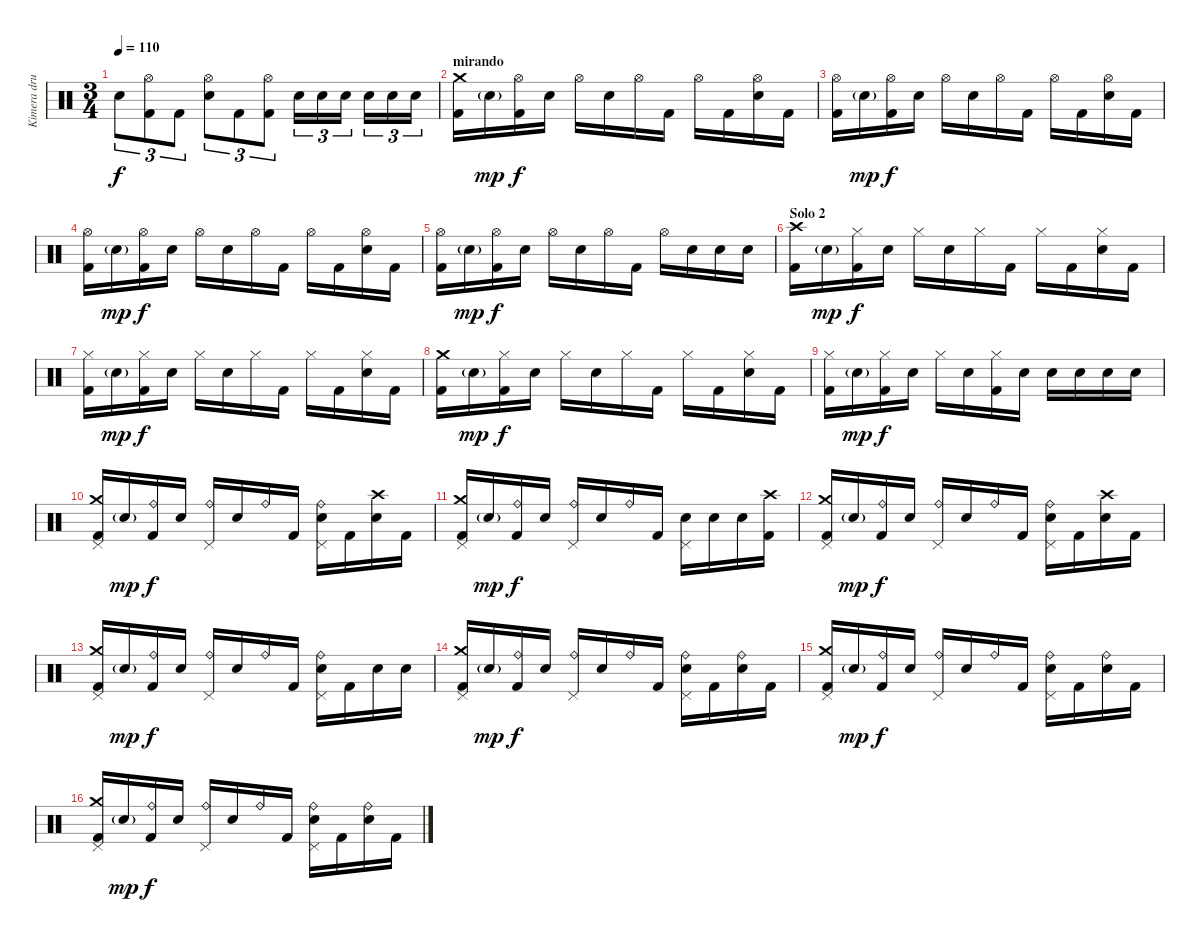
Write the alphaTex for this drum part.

\track ("Kimera drummer" "Kimera dru") {instrument percussion}
\staff {score}
\articulation defaults
\ts (3 4)
\tempo 110
\clef neutral
\ks c "Electric Snare (hit)".8{tu (3 2) dy f}
("Hi-Hat (open)" "Kick (hit) 2").8{tu (3 2)} "Kick (hit) 2".8{tu (3 2)} ("Hi-Hat (open)" "Electric Snare (hit)").8{tu (3 2)} "Kick (hit) 2".8{tu (3 2)} ("Hi-Hat (open)" "Kick (hit) 2").8{tu (3 2)} "Electric Snare (hit)".16{tu (3 2)} "Electric Snare (hit)".16{tu (3 2)} "Electric Snare (hit)".16{tu (3 2)} "Electric Snare (hit)".16{tu (3 2)} "Electric Snare (hit)".16{tu (3 2)} "Electric Snare (hit)".16{tu (3 2)} |
\section ("" "mirando")
("Crash medium (hit)" "Kick (hit) 2").16 "Electric Snare (hit)"{g}.16{dy mp} ("Hi-Hat (open)" "Kick (hit) 2").16{dy f} "Electric Snare (hit)".16 "Hi-Hat (open)".16 "Electric Snare (hit)".16 "Hi-Hat (open)".16 "Kick (hit) 2".16 "Hi-Hat (open)".16 "Kick (hit) 2".16 ("Hi-Hat (open)" "Electric Snare (hit)").16 "Kick (hit) 2".16 |
("Hi-Hat (open)" "Kick (hit) 2").16 "Electric Snare (hit)"{g}.16{dy mp} ("Hi-Hat (open)" "Kick (hit) 2").16{dy f} "Electric Snare (hit)".16 "Hi-Hat (open)".16 "Electric Snare (hit)".16 "Hi-Hat (open)".16 "Kick (hit) 2".16 "Hi-Hat (open)".16 "Kick (hit) 2".16 ("Hi-Hat (open)" "Electric Snare (hit)").16 "Kick (hit) 2".16 |
("Hi-Hat (open)" "Kick (hit) 2").16 "Electric Snare (hit)"{g}.16{dy mp} ("Hi-Hat (open)" "Kick (hit) 2").16{dy f} "Electric Snare (hit)".16 "Hi-Hat (open)".16 "Electric Snare (hit)".16 "Hi-Hat (open)".16 "Kick (hit) 2".16 "Hi-Hat (open)".16 "Kick (hit) 2".16 ("Hi-Hat (open)" "Electric Snare (hit)").16 "Kick (hit) 2".16 |
("Hi-Hat (open)" "Kick (hit) 2").16 "Electric Snare (hit)"{g}.16{dy mp} ("Hi-Hat (open)" "Kick (hit) 2").16{dy f} "Electric Snare (hit)".16 "Hi-Hat (open)".16 "Electric Snare (hit)".16 "Hi-Hat (open)".16 "Kick (hit) 2".16 "Hi-Hat (open)".16 "Electric Snare (hit)".16 "Electric Snare (hit)".16 "Electric Snare (hit)".16 |
\section ("" "Solo 2")
("Crash high (hit)" "Kick (hit) 2").16 "Electric Snare (hit)"{g}.16{dy mp} ("Hi-Hat (closed)" "Kick (hit) 2").16{dy f} "Electric Snare (hit)".16 "Hi-Hat (closed)".16 "Electric Snare (hit)".16 "Hi-Hat (closed)".16 "Kick (hit) 2".16 "Hi-Hat (closed)".16 "Kick (hit) 2".16 ("Hi-Hat (closed)" "Electric Snare (hit)").16 "Kick (hit) 2".16 |
("Hi-Hat (closed)" "Kick (hit) 2").16 "Electric Snare (hit)"{g}.16{dy mp} ("Hi-Hat (closed)" "Kick (hit) 2").16{dy f} "Electric Snare (hit)".16 "Hi-Hat (closed)".16 "Electric Snare (hit)".16 "Hi-Hat (closed)".16 "Kick (hit) 2".16 "Hi-Hat (closed)".16 "Kick (hit) 2".16 ("Hi-Hat (closed)" "Electric Snare (hit)").16 "Kick (hit) 2".16 |
("Crash medium (hit)" "Kick (hit) 2").16 "Electric Snare (hit)"{g}.16{dy mp} ("Hi-Hat (closed)" "Kick (hit) 2").16{dy f} "Electric Snare (hit)".16 "Hi-Hat (closed)".16 "Electric Snare (hit)".16 "Hi-Hat (closed)".16 "Kick (hit) 2".16 "Hi-Hat (closed)".16 "Kick (hit) 2".16 ("Hi-Hat (closed)" "Electric Snare (hit)").16 "Kick (hit) 2".16 |
("Hi-Hat (closed)" "Kick (hit) 2").16 "Electric Snare (hit)"{g}.16{dy mp} ("Hi-Hat (closed)" "Kick (hit) 2").16{dy f} "Electric Snare (hit)".16 "Hi-Hat (closed)".16 "Electric Snare (hit)".16 ("Hi-Hat (closed)" "Kick (hit) 2").16 "Electric Snare (hit)".16 "Electric Snare (hit)".16 "Electric Snare (hit)".16 "Electric Snare (hit)".16 "Electric Snare (hit)".16 |
("Crash medium (hit)" "Pedal Hi-Hat (hit)" "Kick (hit) 2").16 "Electric Snare (hit)"{g}.16{dy mp} ("Ride (bell)" "Kick (hit) 2").16{dy f} "Electric Snare (hit)".16 ("Ride (bell)" "Pedal Hi-Hat (hit)").16 "Electric Snare (hit)".16 "Ride (bell)".16 "Kick (hit) 2".16 ("Ride (bell)" "Electric Snare (hit)" "Pedal Hi-Hat (hit)").16 "Kick (hit) 2".16 ("Crash high (hit)" "Electric Snare (hit)").16 "Kick (hit) 2".16 |
("Crash medium (hit)" "Pedal Hi-Hat (hit)" "Kick (hit) 2").16 "Electric Snare (hit)"{g}.16{dy mp} ("Ride (bell)" "Kick (hit) 2").16{dy f} "Electric Snare (hit)".16 ("Ride (bell)" "Pedal Hi-Hat (hit)").16 "Electric Snare (hit)".16 "Ride (bell)".16 "Kick (hit) 2".16 ("Electric Snare (hit)" "Pedal Hi-Hat (hit)").16 "Electric Snare (hit)".16 "Electric Snare (hit)".16 ("Crash high (hit)" "Kick (hit) 2").16 |
("Crash medium (hit)" "Pedal Hi-Hat (hit)" "Kick (hit) 2").16 "Electric Snare (hit)"{g}.16{dy mp} ("Ride (bell)" "Kick (hit) 2").16{dy f} "Electric Snare (hit)".16 ("Ride (bell)" "Pedal Hi-Hat (hit)").16 "Electric Snare (hit)".16 "Ride (bell)".16 "Kick (hit) 2".16 ("Ride (bell)" "Electric Snare (hit)" "Pedal Hi-Hat (hit)").16 "Kick (hit) 2".16 ("Crash high (hit)" "Electric Snare (hit)").16 "Kick (hit) 2".16 |
("Crash medium (hit)" "Pedal Hi-Hat (hit)" "Kick (hit) 2").16 "Electric Snare (hit)"{g}.16{dy mp} ("Ride (bell)" "Kick (hit) 2").16{dy f} "Electric Snare (hit)".16 ("Ride (bell)" "Pedal Hi-Hat (hit)").16 "Electric Snare (hit)".16 "Ride (bell)".16 "Kick (hit) 2".16 ("Ride (bell)" "Electric Snare (hit)" "Pedal Hi-Hat (hit)").16 "Kick (hit) 2".16 "Electric Snare (hit)".16 "Electric Snare (hit)".16 |
("Crash medium (hit)" "Pedal Hi-Hat (hit)" "Kick (hit) 2").16 "Electric Snare (hit)"{g}.16{dy mp} ("Ride (bell)" "Kick (hit) 2").16{dy f} "Electric Snare (hit)".16 ("Ride (bell)" "Pedal Hi-Hat (hit)").16 "Electric Snare (hit)".16 "Ride (bell)".16 "Kick (hit) 2".16 ("Ride (bell)" "Electric Snare (hit)" "Pedal Hi-Hat (hit)").16 "Kick (hit) 2".16 ("Ride (bell)" "Electric Snare (hit)").16 "Kick (hit) 2".16 |
("Crash medium (hit)" "Pedal Hi-Hat (hit)" "Kick (hit) 2").16 "Electric Snare (hit)"{g}.16{dy mp} ("Ride (bell)" "Kick (hit) 2").16{dy f} "Electric Snare (hit)".16 ("Ride (bell)" "Pedal Hi-Hat (hit)").16 "Electric Snare (hit)".16 "Ride (bell)".16 "Kick (hit) 2".16 ("Ride (bell)" "Electric Snare (hit)" "Pedal Hi-Hat (hit)").16 "Kick (hit) 2".16 ("Ride (bell)" "Electric Snare (hit)").16 "Kick (hit) 2".16 |
("Crash medium (hit)" "Pedal Hi-Hat (hit)" "Kick (hit) 2").16 "Electric Snare (hit)"{g}.16{dy mp} ("Ride (bell)" "Kick (hit) 2").16{dy f} "Electric Snare (hit)".16 ("Ride (bell)" "Pedal Hi-Hat (hit)").16 "Electric Snare (hit)".16 "Ride (bell)".16 "Kick (hit) 2".16 ("Ride (bell)" "Electric Snare (hit)" "Pedal Hi-Hat (hit)").16 "Kick (hit) 2".16 ("Ride (bell)" "Electric Snare (hit)").16 "Kick (hit) 2".16
